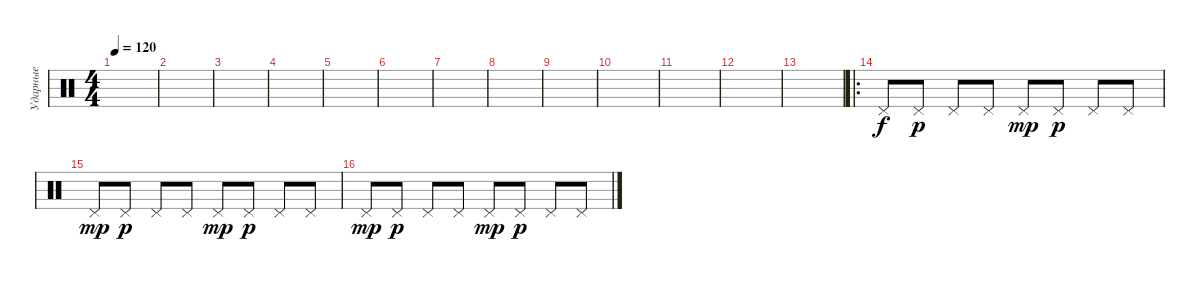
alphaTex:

\track ("Ударные" "Ударные") {instrument percussion}
\staff {score}
\articulation defaults
\ts (4 4)
\tempo 120
\clef neutral
\ks c
|
|
|
|
|
|
|
|
|
|
|
|
|
\ro "Pedal Hi-Hat (hit)".8 "Pedal Hi-Hat (hit)".8{dy p} "Pedal Hi-Hat (hit)".8 "Pedal Hi-Hat (hit)".8 "Pedal Hi-Hat (hit)".8{dy mp} "Pedal Hi-Hat (hit)".8{dy p} "Pedal Hi-Hat (hit)".8 "Pedal Hi-Hat (hit)".8
|
"Pedal Hi-Hat (hit)".8{dy mp} "Pedal Hi-Hat (hit)".8{dy p} "Pedal Hi-Hat (hit)".8 "Pedal Hi-Hat (hit)".8 "Pedal Hi-Hat (hit)".8{dy mp} "Pedal Hi-Hat (hit)".8{dy p} "Pedal Hi-Hat (hit)".8 "Pedal Hi-Hat (hit)".8 |
"Pedal Hi-Hat (hit)".8{dy mp} "Pedal Hi-Hat (hit)".8{dy p} "Pedal Hi-Hat (hit)".8 "Pedal Hi-Hat (hit)".8 "Pedal Hi-Hat (hit)".8{dy mp} "Pedal Hi-Hat (hit)".8{dy p} "Pedal Hi-Hat (hit)".8 "Pedal Hi-Hat (hit)".8
